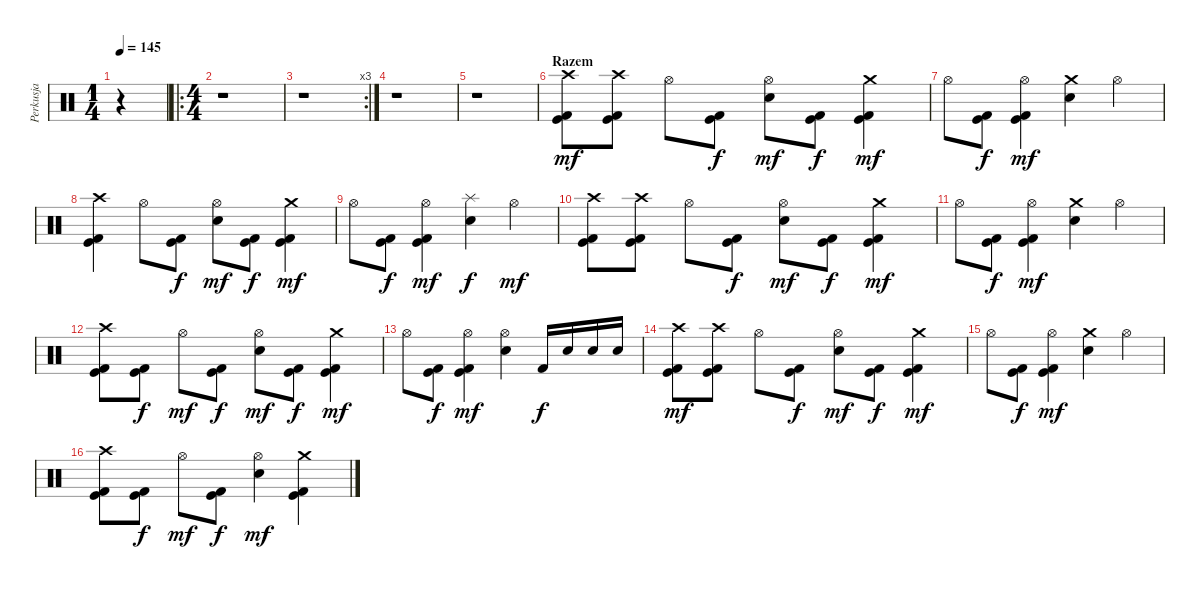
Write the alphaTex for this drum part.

\track ("Perkusja" "Perkusja") {instrument percussion}
\staff {score}
\articulation defaults
\ts (1 4)
\tempo 145
\clef neutral
\ks c
r.4{dy mf} |
\ro
\ts (4 4)
r.1 |
\rc 3
r.1 |
r.1 |
r.1 |
\section ("" "Razem")
("Kick (hit) 2" "Kick (hit)" "Crash high (hit)").8 ("Kick (hit) 2" "Kick (hit)" "Crash high (hit)").8 "Hi-Hat (open)".8 ("Kick (hit) 2" "Kick (hit)").8{dy f} ("Snare (hit) 2" "Hi-Hat (open)").8{dy mf} ("Kick (hit) 2" "Kick (hit)").8{dy f} ("Kick (hit) 2" "Kick (hit)" "Crash medium (hit)").4{dy mf} |
"Hi-Hat (open)".8 ("Kick (hit) 2" "Kick (hit)").8{dy f} ("Kick (hit) 2" "Kick (hit)" "Hi-Hat (open)").4{dy mf} ("Snare (hit) 2" "Crash medium (hit)").4 "Hi-Hat (open)".4 |
("Kick (hit) 2" "Kick (hit)" "Crash high (hit)").4 "Hi-Hat (open)".8 ("Kick (hit) 2" "Kick (hit)").8{dy f} ("Snare (hit) 2" "Hi-Hat (open)").8{dy mf} ("Kick (hit) 2" "Kick (hit)").8{dy f} ("Kick (hit) 2" "Kick (hit)" "Crash medium (hit)").4{dy mf} |
"Hi-Hat (open)".8 ("Kick (hit) 2" "Kick (hit)").8{dy f} ("Kick (hit) 2" "Kick (hit)" "Hi-Hat (open)").4{dy mf} ("Snare (hit) 2" "Splash (hit)").4{dy f} "Hi-Hat (open)".4{dy mf} |
("Kick (hit) 2" "Kick (hit)" "Crash high (hit)").8 ("Kick (hit) 2" "Kick (hit)" "Crash high (hit)").8 "Hi-Hat (open)".8 ("Kick (hit) 2" "Kick (hit)").8{dy f} ("Snare (hit) 2" "Hi-Hat (open)").8{dy mf} ("Kick (hit) 2" "Kick (hit)").8{dy f} ("Kick (hit)" "Kick (hit) 2" "Crash medium (hit)").4{dy mf} |
"Hi-Hat (open)".8 ("Kick (hit) 2" "Kick (hit)").8{dy f} ("Kick (hit) 2" "Kick (hit)" "Hi-Hat (open)").4{dy mf} ("Snare (hit) 2" "Crash medium (hit)").4 "Hi-Hat (open)".4 |
("Kick (hit) 2" "Kick (hit)" "Crash high (hit)").8 ("Kick (hit) 2" "Kick (hit)").8{dy f} "Hi-Hat (open)".8{dy mf} ("Kick (hit) 2" "Kick (hit)").8{dy f} ("Snare (hit) 2" "Hi-Hat (open)").8{dy mf} ("Kick (hit) 2" "Kick (hit)").8{dy f} ("Kick (hit)" "Kick (hit) 2" "Crash medium (hit)").4{dy mf} |
"Hi-Hat (open)".8 ("Kick (hit) 2" "Kick (hit)").8{dy f} ("Kick (hit) 2" "Kick (hit)" "Hi-Hat (open)").4{dy mf} ("Snare (hit) 2" "Hi-Hat (open)").4 "Kick (hit) 2".16{dy f} "Snare (hit) 2".16 "Snare (hit) 2".16 "Snare (hit) 2".16 |
("Kick (hit) 2" "Kick (hit)" "Crash high (hit)").8{dy mf} ("Kick (hit) 2" "Kick (hit)" "Crash high (hit)").8 "Hi-Hat (open)".8 ("Kick (hit) 2" "Kick (hit)").8{dy f} ("Snare (hit) 2" "Hi-Hat (open)").8{dy mf} ("Kick (hit) 2" "Kick (hit)").8{dy f} ("Kick (hit) 2" "Kick (hit)" "Crash medium (hit)").4{dy mf} |
"Hi-Hat (open)".8 ("Kick (hit) 2" "Kick (hit)").8{dy f} ("Kick (hit) 2" "Kick (hit)" "Hi-Hat (open)").4{dy mf} ("Snare (hit) 2" "Crash medium (hit)").4 "Hi-Hat (open)".4 |
("Kick (hit) 2" "Kick (hit)" "Crash high (hit)").8 ("Kick (hit) 2" "Kick (hit)").8{dy f} "Hi-Hat (open)".8{dy mf} ("Kick (hit) 2" "Kick (hit)").8{dy f} ("Snare (hit) 2" "Hi-Hat (open)").4{dy mf} ("Kick (hit) 2" "Kick (hit)" "Crash medium (hit)").4
